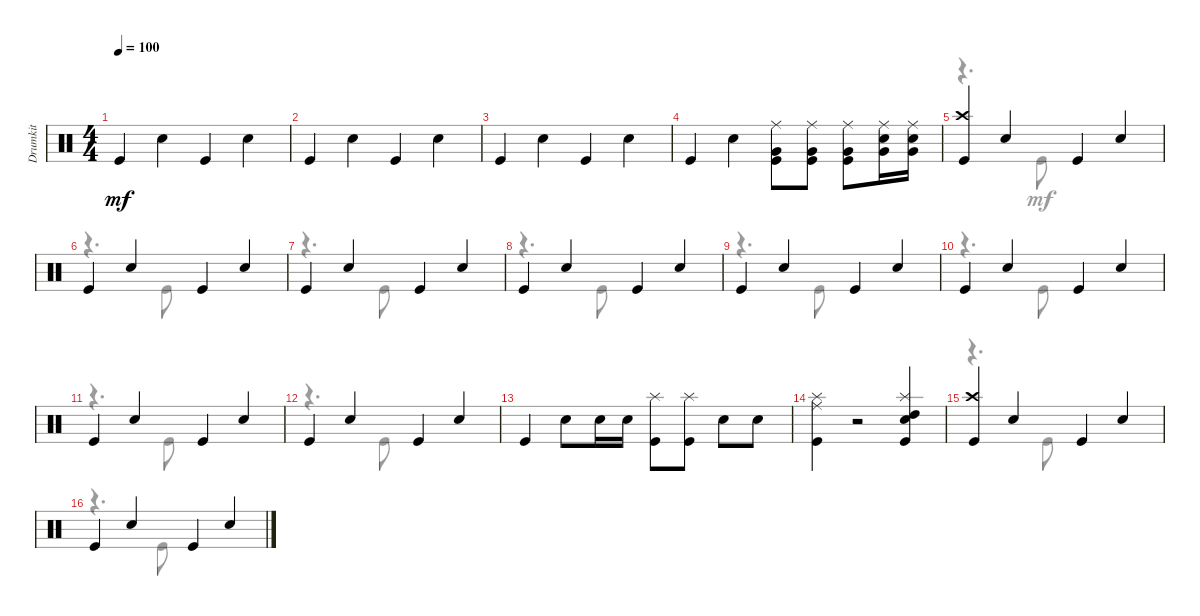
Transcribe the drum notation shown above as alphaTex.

\track ("Drumkit" "Drumkit") {instrument percussion}
\staff {score}
\articulation defaults
\voice
\ts (4 4)
\tempo 100
\clef neutral
\ks aminor "Kick (hit)".4{dy mf} "Electric Snare (hit)".4 "Kick (hit)".4 "Electric Snare (hit)".4
|
"Kick (hit)".4 "Electric Snare (hit)".4 "Kick (hit)".4 "Electric Snare (hit)".4 |
"Kick (hit)".4 "Electric Snare (hit)".4 "Kick (hit)".4 "Electric Snare (hit)".4 |
"Kick (hit)".4 "Electric Snare (hit)".4 ("Kick (hit)" "Very Low Tom (hit)" "Ride (middle)").8 ("Kick (hit)" "Very Low Tom (hit)" "Ride (middle)").8 ("Kick (hit)" "Very Low Tom (hit)" "Ride (middle)").8 ("Electric Snare (hit)" "Very Low Tom (hit)" "Ride (middle)").16 ("Electric Snare (hit)" "Very Low Tom (hit)" "Ride (middle)").16 |
("Kick (hit)" "Crash high (hit)").4 "Electric Snare (hit)".4 "Kick (hit)".4 "Electric Snare (hit)".4 |
"Kick (hit)".4 "Electric Snare (hit)".4 "Kick (hit)".4 "Electric Snare (hit)".4 |
"Kick (hit)".4 "Electric Snare (hit)".4 "Kick (hit)".4 "Electric Snare (hit)".4 |
"Kick (hit)".4 "Electric Snare (hit)".4 "Kick (hit)".4 "Electric Snare (hit)".4 |
"Kick (hit)".4 "Electric Snare (hit)".4 "Kick (hit)".4 "Electric Snare (hit)".4 |
"Kick (hit)".4 "Electric Snare (hit)".4 "Kick (hit)".4 "Electric Snare (hit)".4 |
"Kick (hit)".4 "Electric Snare (hit)".4 "Kick (hit)".4 "Electric Snare (hit)".4 |
"Kick (hit)".4 "Electric Snare (hit)".4 "Kick (hit)".4 "Electric Snare (hit)".4 |
"Kick (hit)".4 "Electric Snare (hit)".8 "Electric Snare (hit)".16 "Electric Snare (hit)".16 ("Kick (hit)" "Splash (hit)").8 ("Splash (hit)" "Kick (hit)").8 "Electric Snare (hit)".8 "Electric Snare (hit)".8 |
("Ride (middle)" "Splash (hit)" "Kick (hit)").4 r.2 ("Splash (hit)" "High Tom (hit)" "Kick (hit)" "Electric Snare (hit)").4 |
("Crash high (hit)" "Kick (hit)").4 "Electric Snare (hit)".4 "Kick (hit)".4 "Electric Snare (hit)".4 |
"Kick (hit)".4 "Electric Snare (hit)".4 "Kick (hit)".4 "Electric Snare (hit)".4
\voice
\clef neutral
\ottava regular
\simile none
\ks aminor
|
|
|
|
r.4{d} "Kick (hit)".8 |
r.4{d} "Kick (hit)".8 |
r.4{d} "Kick (hit)".8 |
r.4{d} "Kick (hit)".8 |
r.4{d} "Kick (hit)".8 |
r.4{d} "Kick (hit)".8 |
r.4{d} "Kick (hit)".8 |
r.4{d} "Kick (hit)".8 |
|
|
r.4{d} "Kick (hit)".8 |
r.4{d} "Kick (hit)".8
